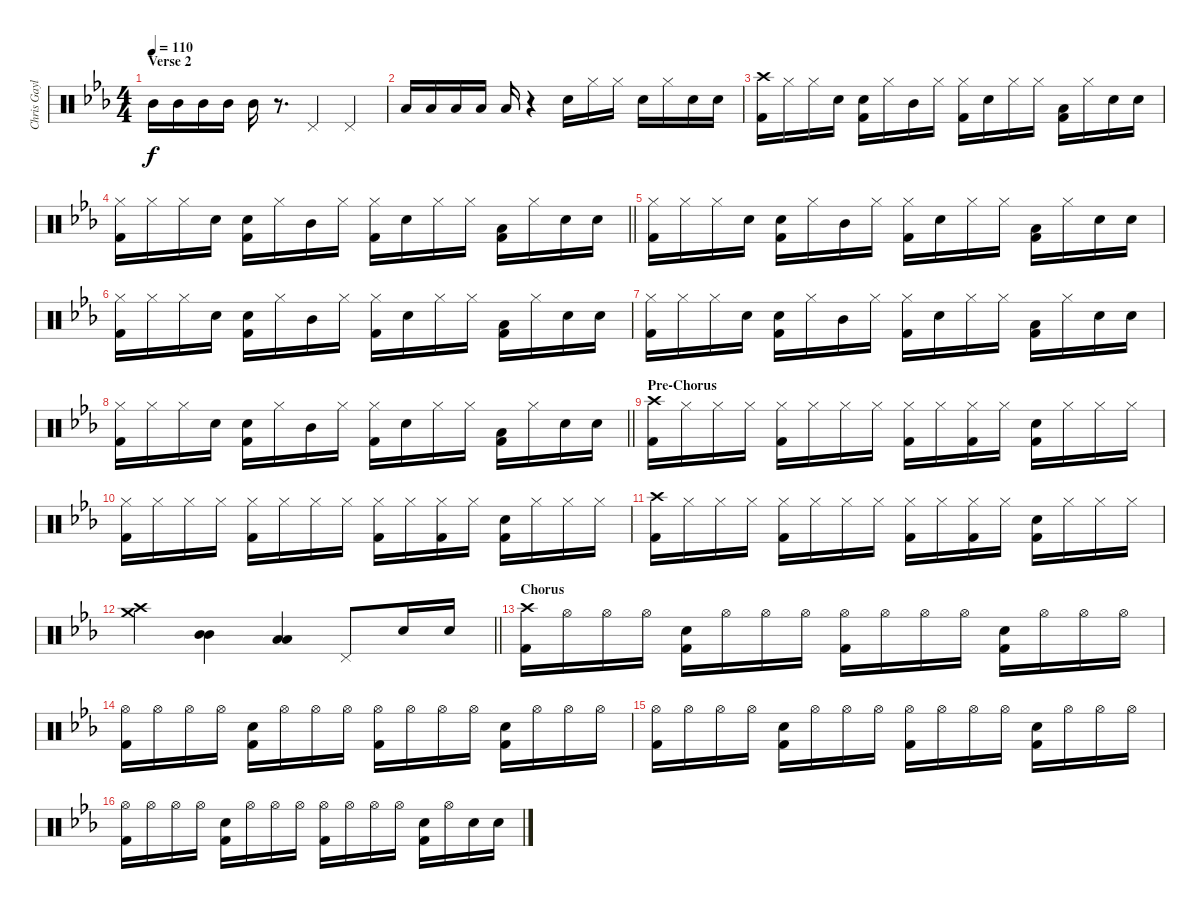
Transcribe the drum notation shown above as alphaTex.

\track ("Chris Gaylor (Percussion)" "Chris Gayl") {instrument percussion}
\staff {score}
\articulation defaults
\ts (4 4)
\section ("" "Verse 2")
\tempo 110
\clef neutral
\ks eb "Mid Tom (hit)".16{dy f} "Mid Tom (hit)".16 "Mid Tom (hit)".16 "Mid Tom (hit)".16 "Mid Tom (hit)".16
r.8{d} "Pedal Hi-Hat (hit)".4 "Pedal Hi-Hat (hit)".4 |
"Low Tom (hit)".16 "Low Tom (hit)".16 "Low Tom (hit)".16 "Low Tom (hit)".16 "Low Tom (hit)".16 r.4 "Electric Snare (hit)".16 "Hi-Hat (closed)".16 "Hi-Hat (closed)".16 "Electric Snare (hit)".16 "Hi-Hat (closed)".16 "Electric Snare (hit)".16 "Electric Snare (hit)".16 |
("Crash high (hit)" "Kick (hit) 2").16 "Hi-Hat (closed)".16 "Hi-Hat (closed)".16 "Electric Snare (hit)".16 ("Electric Snare (hit)" "Kick (hit) 2").16 "Hi-Hat (closed)".16 "Mid Tom (hit)".16 "Hi-Hat (closed)".16 ("Hi-Hat (closed)" "Kick (hit) 2").16 "Electric Snare (hit)".16 "Hi-Hat (closed)".16 "Hi-Hat (closed)".16 ("Low Tom (hit)" "Kick (hit) 2").16 "Hi-Hat (closed)".16 "Electric Snare (hit)".16 "Electric Snare (hit)".16 |
\barLineRight lightlight
("Hi-Hat (closed)" "Kick (hit) 2").16 "Hi-Hat (closed)".16 "Hi-Hat (closed)".16 "Electric Snare (hit)".16 ("Electric Snare (hit)" "Kick (hit) 2").16 "Hi-Hat (closed)".16 "Mid Tom (hit)".16 "Hi-Hat (closed)".16 ("Hi-Hat (closed)" "Kick (hit) 2").16 "Electric Snare (hit)".16 "Hi-Hat (closed)".16 "Hi-Hat (closed)".16 ("Low Tom (hit)" "Kick (hit) 2").16 "Hi-Hat (closed)".16 "Electric Snare (hit)".16 "Electric Snare (hit)".16 |
("Hi-Hat (closed)" "Kick (hit) 2").16 "Hi-Hat (closed)".16 "Hi-Hat (closed)".16 "Electric Snare (hit)".16 ("Electric Snare (hit)" "Kick (hit) 2").16 "Hi-Hat (closed)".16 "Mid Tom (hit)".16 "Hi-Hat (closed)".16 ("Hi-Hat (closed)" "Kick (hit) 2").16 "Electric Snare (hit)".16 "Hi-Hat (closed)".16 "Hi-Hat (closed)".16 ("Low Tom (hit)" "Kick (hit) 2").16 "Hi-Hat (closed)".16 "Electric Snare (hit)".16 "Electric Snare (hit)".16 |
("Hi-Hat (closed)" "Kick (hit) 2").16 "Hi-Hat (closed)".16 "Hi-Hat (closed)".16 "Electric Snare (hit)".16 ("Electric Snare (hit)" "Kick (hit) 2").16 "Hi-Hat (closed)".16 "Mid Tom (hit)".16 "Hi-Hat (closed)".16 ("Hi-Hat (closed)" "Kick (hit) 2").16 "Electric Snare (hit)".16 "Hi-Hat (closed)".16 "Hi-Hat (closed)".16 ("Low Tom (hit)" "Kick (hit) 2").16 "Hi-Hat (closed)".16 "Electric Snare (hit)".16 "Electric Snare (hit)".16 |
("Hi-Hat (closed)" "Kick (hit) 2").16 "Hi-Hat (closed)".16 "Hi-Hat (closed)".16 "Electric Snare (hit)".16 ("Electric Snare (hit)" "Kick (hit) 2").16 "Hi-Hat (closed)".16 "Mid Tom (hit)".16 "Hi-Hat (closed)".16 ("Hi-Hat (closed)" "Kick (hit) 2").16 "Electric Snare (hit)".16 "Hi-Hat (closed)".16 "Hi-Hat (closed)".16 ("Low Tom (hit)" "Kick (hit) 2").16 "Hi-Hat (closed)".16 "Electric Snare (hit)".16 "Electric Snare (hit)".16 |
\barLineRight lightlight
("Hi-Hat (closed)" "Kick (hit) 2").16 "Hi-Hat (closed)".16 "Hi-Hat (closed)".16 "Electric Snare (hit)".16 ("Electric Snare (hit)" "Kick (hit) 2").16 "Hi-Hat (closed)".16 "Mid Tom (hit)".16 "Hi-Hat (closed)".16 ("Hi-Hat (closed)" "Kick (hit) 2").16 "Electric Snare (hit)".16 "Hi-Hat (closed)".16 "Hi-Hat (closed)".16 ("Low Tom (hit)" "Kick (hit) 2").16 "Hi-Hat (closed)".16 "Electric Snare (hit)".16 "Electric Snare (hit)".16 |
\section ("" "Pre-Chorus")
("Crash high (hit)" "Kick (hit) 2").16 "Hi-Hat (closed)".16 "Hi-Hat (closed)".16 "Hi-Hat (closed)".16 ("Hi-Hat (closed)" "Kick (hit) 2").16 "Hi-Hat (closed)".16 "Hi-Hat (closed)".16 "Hi-Hat (closed)".16 ("Hi-Hat (closed)" "Kick (hit) 2").16 "Hi-Hat (closed)".16 ("Hi-Hat (closed)" "Kick (hit) 2").16 "Hi-Hat (closed)".16 ("Electric Snare (hit)" "Kick (hit) 2").16 "Hi-Hat (closed)".16 "Hi-Hat (closed)".16 "Hi-Hat (closed)".16 |
("Hi-Hat (closed)" "Kick (hit) 2").16 "Hi-Hat (closed)".16 "Hi-Hat (closed)".16 "Hi-Hat (closed)".16 ("Hi-Hat (closed)" "Kick (hit) 2").16 "Hi-Hat (closed)".16 "Hi-Hat (closed)".16 "Hi-Hat (closed)".16 ("Hi-Hat (closed)" "Kick (hit) 2").16 "Hi-Hat (closed)".16 ("Hi-Hat (closed)" "Kick (hit) 2").16 "Hi-Hat (closed)".16 ("Electric Snare (hit)" "Kick (hit) 2").16 "Hi-Hat (closed)".16 "Hi-Hat (closed)".16 "Hi-Hat (closed)".16 |
("Crash high (hit)" "Kick (hit) 2").16 "Hi-Hat (closed)".16 "Hi-Hat (closed)".16 "Hi-Hat (closed)".16 ("Hi-Hat (closed)" "Kick (hit) 2").16 "Hi-Hat (closed)".16 "Hi-Hat (closed)".16 "Hi-Hat (closed)".16 ("Hi-Hat (closed)" "Kick (hit) 2").16 "Hi-Hat (closed)".16 ("Hi-Hat (closed)" "Kick (hit) 2").16 "Hi-Hat (closed)".16 ("Electric Snare (hit)" "Kick (hit) 2").16 "Hi-Hat (closed)".16 "Hi-Hat (closed)".16 "Hi-Hat (closed)".16 |
\barLineRight lightlight
("Crash medium (hit)" "Crash high (hit)").4 ("Mid Tom (hit)" "Mid Tom (hit)").4 ("Low Tom (hit)" "Low Tom (hit)").4 "Pedal Hi-Hat (hit)".8 "Electric Snare (hit)".16 "Electric Snare (hit)".16 |
\section ("" "Chorus")
("Crash high (hit)" "Kick (hit) 2").16 "Hi-Hat (open)".16 "Hi-Hat (open)".16 "Hi-Hat (open)".16 ("Electric Snare (hit)" "Kick (hit) 2").16 "Hi-Hat (open)".16 "Hi-Hat (open)".16 "Hi-Hat (open)".16 ("Hi-Hat (open)" "Kick (hit) 2").16 "Hi-Hat (open)".16 "Hi-Hat (open)".16 "Hi-Hat (open)".16 ("Electric Snare (hit)" "Kick (hit) 2").16 "Hi-Hat (open)".16 "Hi-Hat (open)".16 "Hi-Hat (open)".16 |
("Hi-Hat (open)" "Kick (hit) 2").16 "Hi-Hat (open)".16 "Hi-Hat (open)".16 "Hi-Hat (open)".16 ("Electric Snare (hit)" "Kick (hit) 2").16 "Hi-Hat (open)".16 "Hi-Hat (open)".16 "Hi-Hat (open)".16 ("Hi-Hat (open)" "Kick (hit) 2").16 "Hi-Hat (open)".16 "Hi-Hat (open)".16 "Hi-Hat (open)".16 ("Electric Snare (hit)" "Kick (hit) 2").16 "Hi-Hat (open)".16 "Hi-Hat (open)".16 "Hi-Hat (open)".16 |
("Hi-Hat (open)" "Kick (hit) 2").16 "Hi-Hat (open)".16 "Hi-Hat (open)".16 "Hi-Hat (open)".16 ("Electric Snare (hit)" "Kick (hit) 2").16 "Hi-Hat (open)".16 "Hi-Hat (open)".16 "Hi-Hat (open)".16 ("Hi-Hat (open)" "Kick (hit) 2").16 "Hi-Hat (open)".16 "Hi-Hat (open)".16 "Hi-Hat (open)".16 ("Electric Snare (hit)" "Kick (hit) 2").16 "Hi-Hat (open)".16 "Hi-Hat (open)".16 "Hi-Hat (open)".16 |
("Hi-Hat (open)" "Kick (hit) 2").16 "Hi-Hat (open)".16 "Hi-Hat (open)".16 "Hi-Hat (open)".16 ("Electric Snare (hit)" "Kick (hit) 2").16 "Hi-Hat (open)".16 "Hi-Hat (open)".16 "Hi-Hat (open)".16 ("Hi-Hat (open)" "Kick (hit) 2").16 "Hi-Hat (open)".16 "Hi-Hat (open)".16 "Hi-Hat (open)".16 ("Electric Snare (hit)" "Kick (hit) 2").16 "Hi-Hat (open)".16 "Electric Snare (hit)".16 "Electric Snare (hit)".16
